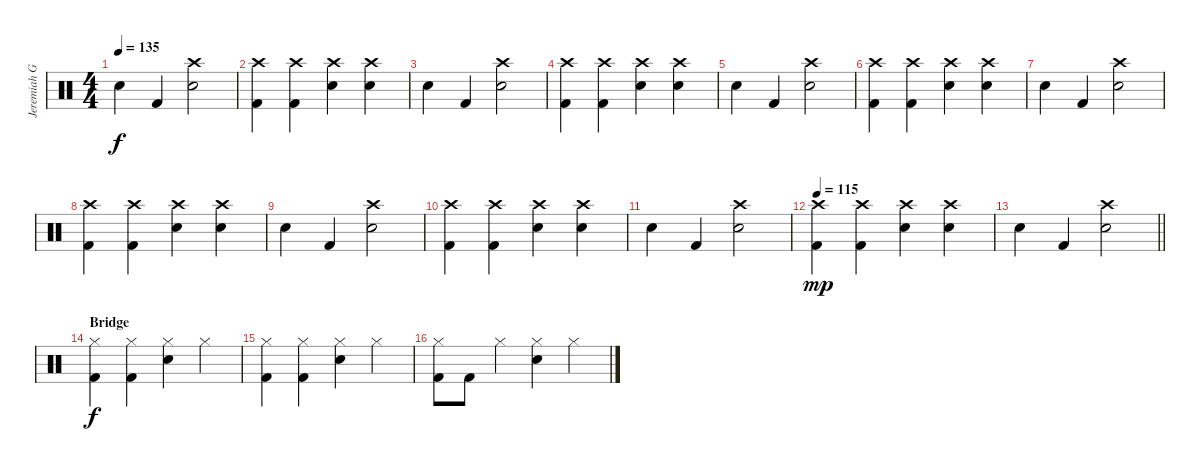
\track ("Jeremiah Green" "Jeremiah G") {instrument percussion}
\staff {score}
\articulation defaults
\ts (4 4)
\tempo 135
\clef neutral
\ks c "Electric Snare (hit)".4{dy f} "Kick (hit) 2".4
("Crash high (hit)" "Electric Snare (hit)").2 |
("Crash high (hit)" "Kick (hit) 2").4 ("Crash high (hit)" "Kick (hit) 2").4 ("Crash high (hit)" "Electric Snare (hit)").4 ("Crash high (hit)" "Electric Snare (hit)").4 |
"Electric Snare (hit)".4 "Kick (hit) 2".4 ("Crash high (hit)" "Electric Snare (hit)").2 |
("Crash high (hit)" "Kick (hit) 2").4 ("Crash high (hit)" "Kick (hit) 2").4 ("Crash high (hit)" "Electric Snare (hit)").4 ("Crash high (hit)" "Electric Snare (hit)").4 |
"Electric Snare (hit)".4 "Kick (hit) 2".4 ("Crash high (hit)" "Electric Snare (hit)").2 |
("Crash high (hit)" "Kick (hit) 2").4 ("Crash high (hit)" "Kick (hit) 2").4 ("Crash high (hit)" "Electric Snare (hit)").4 ("Crash high (hit)" "Electric Snare (hit)").4 |
"Electric Snare (hit)".4 "Kick (hit) 2".4 ("Crash high (hit)" "Electric Snare (hit)").2 |
("Crash high (hit)" "Kick (hit) 2").4 ("Crash high (hit)" "Kick (hit) 2").4 ("Crash high (hit)" "Electric Snare (hit)").4 ("Crash high (hit)" "Electric Snare (hit)").4 |
"Electric Snare (hit)".4 "Kick (hit) 2".4 ("Crash high (hit)" "Electric Snare (hit)").2 |
("Crash high (hit)" "Kick (hit) 2").4 ("Crash high (hit)" "Kick (hit) 2").4 ("Crash high (hit)" "Electric Snare (hit)").4 ("Crash high (hit)" "Electric Snare (hit)").4 |
"Electric Snare (hit)".4 "Kick (hit) 2".4 ("Crash high (hit)" "Electric Snare (hit)").2 |
\tempo 115
("Crash high (hit)" "Kick (hit) 2").4{dy mp} ("Crash high (hit)" "Kick (hit) 2").4 ("Crash high (hit)" "Electric Snare (hit)").4 ("Crash high (hit)" "Electric Snare (hit)").4 |
\barLineRight lightlight "Electric Snare (hit)".4 "Kick (hit) 2".4
("Crash high (hit)" "Electric Snare (hit)").2 |
\section ("" "Bridge")
("Hi-Hat (closed)" "Kick (hit) 2").4{dy f} ("Hi-Hat (closed)" "Kick (hit) 2").4 ("Hi-Hat (closed)" "Electric Snare (hit)").4 "Hi-Hat (closed)".4 |
("Hi-Hat (closed)" "Kick (hit) 2").4 ("Hi-Hat (closed)" "Kick (hit) 2").4 ("Hi-Hat (closed)" "Electric Snare (hit)").4 "Hi-Hat (closed)".4 |
("Hi-Hat (closed)" "Kick (hit) 2").8 "Kick (hit) 2".8 "Hi-Hat (closed)".4 ("Hi-Hat (closed)" "Electric Snare (hit)").4 "Hi-Hat (closed)".4
